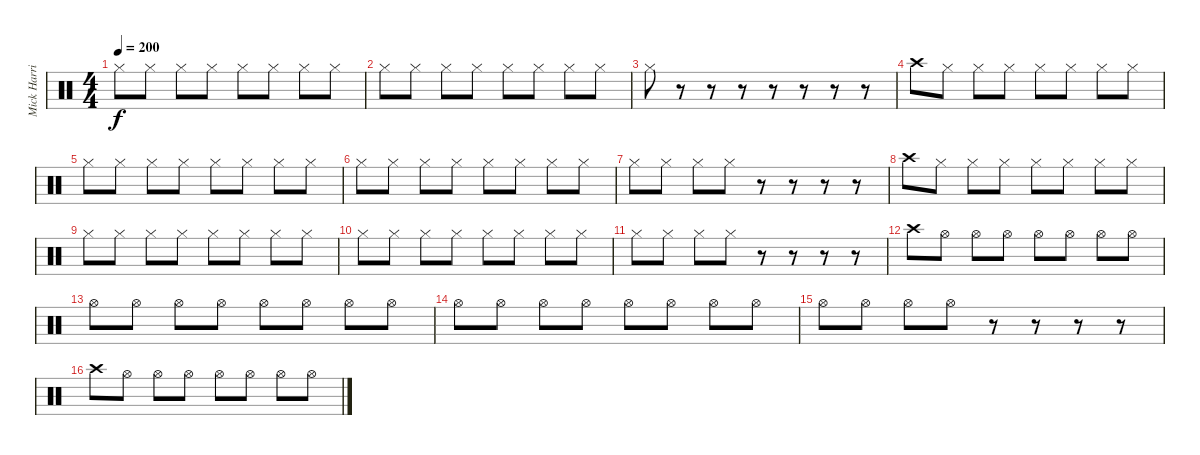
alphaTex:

\track ("Mick Harris" "Mick Harri") {instrument percussion}
\staff {score}
\articulation defaults
\ts (4 4)
\tempo 200
\clef neutral
\ks c "Hi-Hat (closed)".8{dy f} "Hi-Hat (closed)".8 "Hi-Hat (closed)".8 "Hi-Hat (closed)".8 "Hi-Hat (closed)".8 "Hi-Hat (closed)".8 "Hi-Hat (closed)".8 "Hi-Hat (closed)".8
|
"Hi-Hat (closed)".8 "Hi-Hat (closed)".8 "Hi-Hat (closed)".8 "Hi-Hat (closed)".8 "Hi-Hat (closed)".8 "Hi-Hat (closed)".8 "Hi-Hat (closed)".8 "Hi-Hat (closed)".8 |
"Hi-Hat (closed)".8 r.8 r.8 r.8 r.8 r.8 r.8 r.8 |
"Crash high (hit)".8 "Hi-Hat (closed)".8 "Hi-Hat (closed)".8 "Hi-Hat (closed)".8 "Hi-Hat (closed)".8 "Hi-Hat (closed)".8 "Hi-Hat (closed)".8 "Hi-Hat (closed)".8 |
"Hi-Hat (closed)".8 "Hi-Hat (closed)".8 "Hi-Hat (closed)".8 "Hi-Hat (closed)".8 "Hi-Hat (closed)".8 "Hi-Hat (closed)".8 "Hi-Hat (closed)".8 "Hi-Hat (closed)".8 |
"Hi-Hat (closed)".8 "Hi-Hat (closed)".8 "Hi-Hat (closed)".8 "Hi-Hat (closed)".8 "Hi-Hat (closed)".8 "Hi-Hat (closed)".8 "Hi-Hat (closed)".8 "Hi-Hat (closed)".8 |
"Hi-Hat (closed)".8 "Hi-Hat (closed)".8 "Hi-Hat (closed)".8 "Hi-Hat (closed)".8 r.8 r.8 r.8 r.8 |
"Crash high (hit)".8 "Hi-Hat (closed)".8 "Hi-Hat (closed)".8 "Hi-Hat (closed)".8 "Hi-Hat (closed)".8 "Hi-Hat (closed)".8 "Hi-Hat (closed)".8 "Hi-Hat (closed)".8 |
"Hi-Hat (closed)".8 "Hi-Hat (closed)".8 "Hi-Hat (closed)".8 "Hi-Hat (closed)".8 "Hi-Hat (closed)".8 "Hi-Hat (closed)".8 "Hi-Hat (closed)".8 "Hi-Hat (closed)".8 |
"Hi-Hat (closed)".8 "Hi-Hat (closed)".8 "Hi-Hat (closed)".8 "Hi-Hat (closed)".8 "Hi-Hat (closed)".8 "Hi-Hat (closed)".8 "Hi-Hat (closed)".8 "Hi-Hat (closed)".8 |
"Hi-Hat (closed)".8 "Hi-Hat (closed)".8 "Hi-Hat (closed)".8 "Hi-Hat (closed)".8 r.8 r.8 r.8 r.8 |
"Crash high (hit)".8 "Hi-Hat (open)".8 "Hi-Hat (open)".8 "Hi-Hat (open)".8 "Hi-Hat (open)".8 "Hi-Hat (open)".8 "Hi-Hat (open)".8 "Hi-Hat (open)".8 |
"Hi-Hat (open)".8 "Hi-Hat (open)".8 "Hi-Hat (open)".8 "Hi-Hat (open)".8 "Hi-Hat (open)".8 "Hi-Hat (open)".8 "Hi-Hat (open)".8 "Hi-Hat (open)".8 |
"Hi-Hat (open)".8 "Hi-Hat (open)".8 "Hi-Hat (open)".8 "Hi-Hat (open)".8 "Hi-Hat (open)".8 "Hi-Hat (open)".8 "Hi-Hat (open)".8 "Hi-Hat (open)".8 |
"Hi-Hat (open)".8 "Hi-Hat (open)".8 "Hi-Hat (open)".8 "Hi-Hat (open)".8 r.8 r.8 r.8 r.8 |
"Crash high (hit)".8 "Hi-Hat (open)".8 "Hi-Hat (open)".8 "Hi-Hat (open)".8 "Hi-Hat (open)".8 "Hi-Hat (open)".8 "Hi-Hat (open)".8 "Hi-Hat (open)".8
